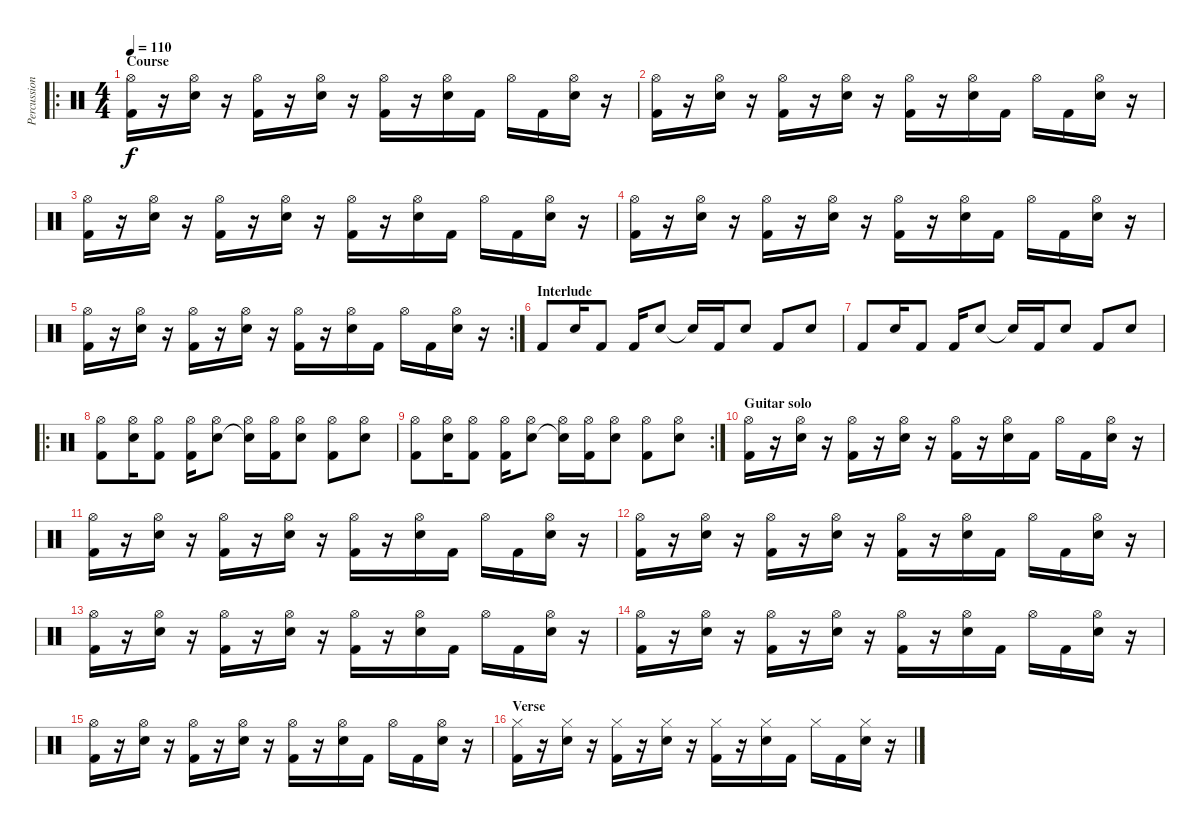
\track ("Percussion" "Percussion") {instrument percussion}
\staff {score}
\articulation defaults
\ro
\ts (4 4)
\section ("" "Course")
\tempo 110
\clef neutral
\ks c
("Kick (hit) 2" "Hi-Hat (open)").16{dy f} r.16 ("Snare (hit) 2" "Hi-Hat (open)").16 r.16 ("Kick (hit) 2" "Hi-Hat (open)").16 r.16 ("Snare (hit) 2" "Hi-Hat (open)").16 r.16 ("Kick (hit) 2" "Hi-Hat (open)").16 r.16 ("Snare (hit) 2" "Hi-Hat (open)").16 "Kick (hit) 2".16 "Hi-Hat (open)".16 "Kick (hit) 2".16 ("Snare (hit) 2" "Hi-Hat (open)").16 r.16 |
("Kick (hit) 2" "Hi-Hat (open)").16 r.16 ("Snare (hit) 2" "Hi-Hat (open)").16 r.16 ("Kick (hit) 2" "Hi-Hat (open)").16 r.16 ("Snare (hit) 2" "Hi-Hat (open)").16 r.16 ("Kick (hit) 2" "Hi-Hat (open)").16 r.16 ("Snare (hit) 2" "Hi-Hat (open)").16 "Kick (hit) 2".16 "Hi-Hat (open)".16 "Kick (hit) 2".16 ("Snare (hit) 2" "Hi-Hat (open)").16 r.16 |
("Kick (hit) 2" "Hi-Hat (open)").16 r.16 ("Snare (hit) 2" "Hi-Hat (open)").16 r.16 ("Kick (hit) 2" "Hi-Hat (open)").16 r.16 ("Snare (hit) 2" "Hi-Hat (open)").16 r.16 ("Kick (hit) 2" "Hi-Hat (open)").16 r.16 ("Snare (hit) 2" "Hi-Hat (open)").16 "Kick (hit) 2".16 "Hi-Hat (open)".16 "Kick (hit) 2".16 ("Snare (hit) 2" "Hi-Hat (open)").16 r.16 |
("Kick (hit) 2" "Hi-Hat (open)").16 r.16 ("Snare (hit) 2" "Hi-Hat (open)").16 r.16 ("Kick (hit) 2" "Hi-Hat (open)").16 r.16 ("Snare (hit) 2" "Hi-Hat (open)").16 r.16 ("Kick (hit) 2" "Hi-Hat (open)").16 r.16 ("Snare (hit) 2" "Hi-Hat (open)").16 "Kick (hit) 2".16 "Hi-Hat (open)".16 "Kick (hit) 2".16 ("Snare (hit) 2" "Hi-Hat (open)").16 r.16 |
\rc 2
("Kick (hit) 2" "Hi-Hat (open)").16 r.16 ("Snare (hit) 2" "Hi-Hat (open)").16 r.16 ("Kick (hit) 2" "Hi-Hat (open)").16 r.16 ("Snare (hit) 2" "Hi-Hat (open)").16 r.16 ("Kick (hit) 2" "Hi-Hat (open)").16 r.16 ("Snare (hit) 2" "Hi-Hat (open)").16 "Kick (hit) 2".16 "Hi-Hat (open)".16 "Kick (hit) 2".16 ("Snare (hit) 2" "Hi-Hat (open)").16 r.16 |
\section ("" "Interlude")
"Kick (hit) 2".8 "Snare (hit) 2".16 "Kick (hit) 2".8 "Kick (hit) 2".16 "Snare (hit) 2".8 "Snare (hit)"{t}.16 "Kick (hit) 2".16 "Snare (hit) 2".8 "Kick (hit) 2".8 "Snare (hit) 2".8 |
"Kick (hit) 2".8 "Snare (hit) 2".16 "Kick (hit) 2".8 "Kick (hit) 2".16 "Snare (hit) 2".8 "Snare (hit)"{t}.16 "Kick (hit) 2".16 "Snare (hit) 2".8 "Kick (hit) 2".8 "Snare (hit) 2".8 |
\ro
("Kick (hit) 2" "Hi-Hat (open)").8 ("Snare (hit) 2" "Hi-Hat (open)").16 ("Kick (hit) 2" "Hi-Hat (open)").8 ("Kick (hit) 2" "Hi-Hat (open)").16 ("Snare (hit) 2" "Hi-Hat (open)").8 ("Snare (hit)"{t} "Hi-Hat (open)").16 ("Kick (hit) 2" "Hi-Hat (open)").16 ("Snare (hit) 2" "Hi-Hat (open)").8 ("Kick (hit) 2" "Hi-Hat (open)").8 ("Snare (hit) 2" "Hi-Hat (open)").8 |
\rc 2
("Kick (hit) 2" "Hi-Hat (open)").8 ("Snare (hit) 2" "Hi-Hat (open)").16 ("Kick (hit) 2" "Hi-Hat (open)").8 ("Kick (hit) 2" "Hi-Hat (open)").16 ("Snare (hit) 2" "Hi-Hat (open)").8 ("Snare (hit)"{t} "Hi-Hat (open)").16 ("Kick (hit) 2" "Hi-Hat (open)").16 ("Snare (hit) 2" "Hi-Hat (open)").8 ("Kick (hit) 2" "Hi-Hat (open)").8 ("Snare (hit) 2" "Hi-Hat (open)").8 |
\section ("" "Guitar solo")
("Kick (hit) 2" "Hi-Hat (open)").16 r.16 ("Snare (hit) 2" "Hi-Hat (open)").16 r.16 ("Kick (hit) 2" "Hi-Hat (open)").16 r.16 ("Snare (hit) 2" "Hi-Hat (open)").16 r.16 ("Kick (hit) 2" "Hi-Hat (open)").16 r.16 ("Snare (hit) 2" "Hi-Hat (open)").16 "Kick (hit) 2".16 "Hi-Hat (open)".16 "Kick (hit) 2".16 ("Snare (hit) 2" "Hi-Hat (open)").16 r.16 |
("Kick (hit) 2" "Hi-Hat (open)").16 r.16 ("Snare (hit) 2" "Hi-Hat (open)").16 r.16 ("Kick (hit) 2" "Hi-Hat (open)").16 r.16 ("Snare (hit) 2" "Hi-Hat (open)").16 r.16 ("Kick (hit) 2" "Hi-Hat (open)").16 r.16 ("Snare (hit) 2" "Hi-Hat (open)").16 "Kick (hit) 2".16 "Hi-Hat (open)".16 "Kick (hit) 2".16 ("Snare (hit) 2" "Hi-Hat (open)").16 r.16 |
("Kick (hit) 2" "Hi-Hat (open)").16 r.16 ("Snare (hit) 2" "Hi-Hat (open)").16 r.16 ("Kick (hit) 2" "Hi-Hat (open)").16 r.16 ("Snare (hit) 2" "Hi-Hat (open)").16 r.16 ("Kick (hit) 2" "Hi-Hat (open)").16 r.16 ("Snare (hit) 2" "Hi-Hat (open)").16 "Kick (hit) 2".16 "Hi-Hat (open)".16 "Kick (hit) 2".16 ("Snare (hit) 2" "Hi-Hat (open)").16 r.16 |
("Kick (hit) 2" "Hi-Hat (open)").16 r.16 ("Snare (hit) 2" "Hi-Hat (open)").16 r.16 ("Kick (hit) 2" "Hi-Hat (open)").16 r.16 ("Snare (hit) 2" "Hi-Hat (open)").16 r.16 ("Kick (hit) 2" "Hi-Hat (open)").16 r.16 ("Snare (hit) 2" "Hi-Hat (open)").16 "Kick (hit) 2".16 "Hi-Hat (open)".16 "Kick (hit) 2".16 ("Snare (hit) 2" "Hi-Hat (open)").16 r.16 |
("Kick (hit) 2" "Hi-Hat (open)").16 r.16 ("Snare (hit) 2" "Hi-Hat (open)").16 r.16 ("Kick (hit) 2" "Hi-Hat (open)").16 r.16 ("Snare (hit) 2" "Hi-Hat (open)").16 r.16 ("Kick (hit) 2" "Hi-Hat (open)").16 r.16 ("Snare (hit) 2" "Hi-Hat (open)").16 "Kick (hit) 2".16 "Hi-Hat (open)".16 "Kick (hit) 2".16 ("Snare (hit) 2" "Hi-Hat (open)").16 r.16 |
("Kick (hit) 2" "Hi-Hat (open)").16 r.16 ("Snare (hit) 2" "Hi-Hat (open)").16 r.16 ("Kick (hit) 2" "Hi-Hat (open)").16 r.16 ("Snare (hit) 2" "Hi-Hat (open)").16 r.16 ("Kick (hit) 2" "Hi-Hat (open)").16 r.16 ("Snare (hit) 2" "Hi-Hat (open)").16 "Kick (hit) 2".16 "Hi-Hat (open)".16 "Kick (hit) 2".16 ("Snare (hit) 2" "Hi-Hat (open)").16 r.16 |
\section ("" "Verse")
("Kick (hit) 2" "Hi-Hat (closed)").16 r.16 ("Snare (hit) 2" "Hi-Hat (closed)").16 r.16 ("Kick (hit) 2" "Hi-Hat (closed)").16 r.16 ("Snare (hit) 2" "Hi-Hat (closed)").16 r.16 ("Kick (hit) 2" "Hi-Hat (closed)").16 r.16 ("Snare (hit) 2" "Hi-Hat (closed)").16 "Kick (hit) 2".16 "Hi-Hat (closed)".16 "Kick (hit) 2".16 ("Snare (hit) 2" "Hi-Hat (closed)").16 r.16
